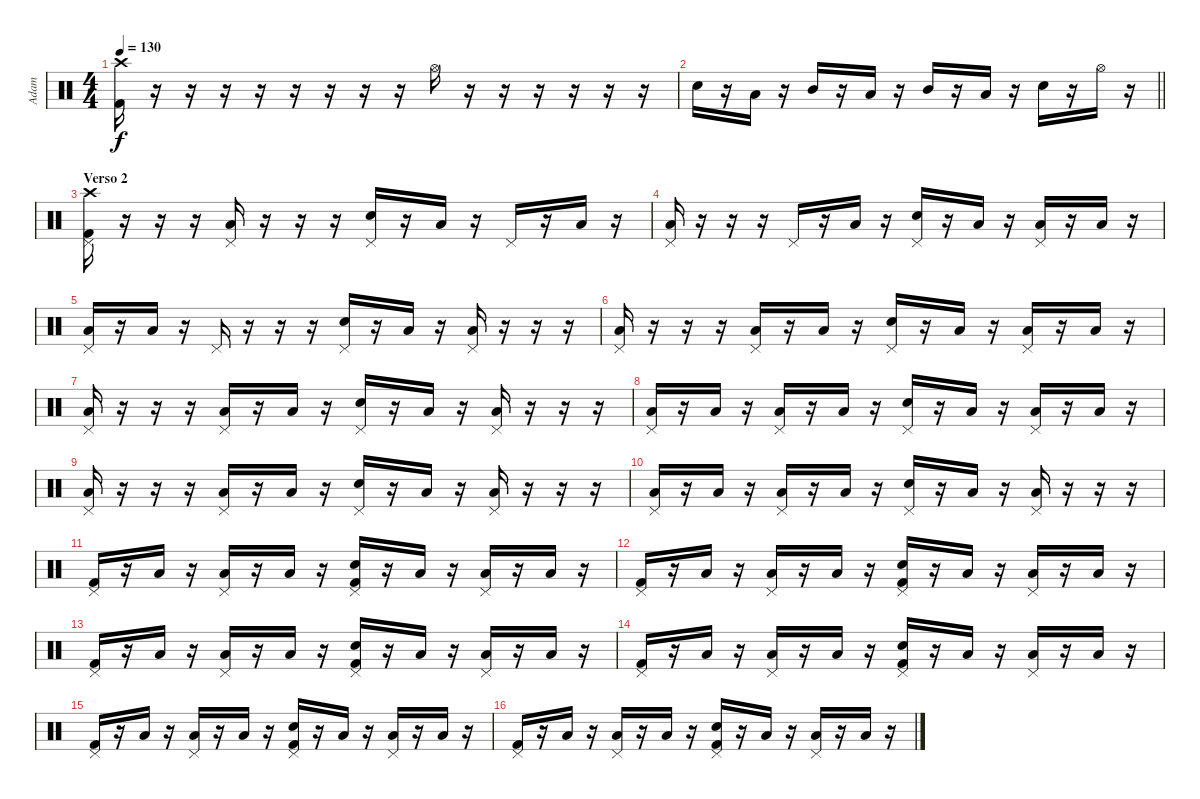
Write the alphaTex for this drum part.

\track ("Adam" "Adam") {instrument percussion}
\staff {score}
\articulation defaults
\ts (4 4)
\tempo 130
\clef neutral
\ks c
("Crash high (hit)" "Kick (hit) 2").16{dy f} r.16 r.16 r.16 r.16 r.16 r.16 r.16 r.16 "Hi-Hat (open)".16 r.16 r.16 r.16 r.16 r.16 r.16 |
\barLineRight lightlight "Snare (hit) 2".16
r.16 "Low Floor Tom (hit)".16 r.16 "Mid Tom (hit)".16 r.16 "Low Tom (hit)".16 r.16 "Mid Tom (hit)".16 r.16 "Low Floor Tom (hit)".16 r.16 "Snare (hit) 2".16 r.16 "Hi-Hat (open)".16 r.16 |
\section ("" "Verso 2")
("Crash high (hit)" "Pedal Hi-Hat (hit)" "Kick (hit) 2").16 r.16 r.16 r.16 ("Pedal Hi-Hat (hit)" "Low Floor Tom (hit)").16 r.16 r.16 r.16 ("Pedal Hi-Hat (hit)" "Snare (hit) 2").16 r.16 "Low Floor Tom (hit)".16 r.16 "Pedal Hi-Hat (hit)".16 r.16 "Low Floor Tom (hit)".16 r.16 |
("Pedal Hi-Hat (hit)" "Low Tom (hit)").16 r.16 r.16 r.16 "Pedal Hi-Hat (hit)".16 r.16 "Low Floor Tom (hit)".16 r.16 ("Pedal Hi-Hat (hit)" "Snare (hit) 2").16 r.16 "Low Tom (hit)".16 r.16 ("Pedal Hi-Hat (hit)" "Low Floor Tom (hit)").16 r.16 "Low Floor Tom (hit)".16 r.16 |
("Pedal Hi-Hat (hit)" "Low Floor Tom (hit)").16 r.16 "Low Floor Tom (hit)".16 r.16 "Pedal Hi-Hat (hit)".16 r.16 r.16 r.16 ("Pedal Hi-Hat (hit)" "Snare (hit) 2").16 r.16 "Low Tom (hit)".16 r.16 ("Pedal Hi-Hat (hit)" "Low Floor Tom (hit)").16 r.16 r.16 r.16 |
("Pedal Hi-Hat (hit)" "Low Floor Tom (hit)").16 r.16 r.16 r.16 ("Pedal Hi-Hat (hit)" "Low Tom (hit)").16 r.16 "Low Floor Tom (hit)".16 r.16 ("Pedal Hi-Hat (hit)" "Snare (hit) 2").16 r.16 "Low Floor Tom (hit)".16 r.16 ("Pedal Hi-Hat (hit)" "Low Floor Tom (hit)").16 r.16 "Low Floor Tom (hit)".16 r.16 |
("Pedal Hi-Hat (hit)" "Low Floor Tom (hit)").16 r.16 r.16 r.16 ("Pedal Hi-Hat (hit)" "Low Floor Tom (hit)").16 r.16 "Low Floor Tom (hit)".16 r.16 ("Pedal Hi-Hat (hit)" "Snare (hit) 2").16 r.16 "Low Tom (hit)".16 r.16 ("Pedal Hi-Hat (hit)" "Low Floor Tom (hit)").16 r.16 r.16 r.16 |
("Pedal Hi-Hat (hit)" "Low Floor Tom (hit)").16 r.16 "Low Tom (hit)".16 r.16 ("Pedal Hi-Hat (hit)" "Low Floor Tom (hit)").16 r.16 "Low Floor Tom (hit)".16 r.16 ("Pedal Hi-Hat (hit)" "Snare (hit) 2").16 r.16 "Low Tom (hit)".16 r.16 ("Pedal Hi-Hat (hit)" "Low Floor Tom (hit)").16 r.16 "Low Floor Tom (hit)".16 r.16 |
("Pedal Hi-Hat (hit)" "Low Floor Tom (hit)").16 r.16 r.16 r.16 ("Pedal Hi-Hat (hit)" "Low Floor Tom (hit)").16 r.16 "Low Floor Tom (hit)".16 r.16 ("Pedal Hi-Hat (hit)" "Snare (hit) 2").16 r.16 "Low Tom (hit)".16 r.16 ("Pedal Hi-Hat (hit)" "Low Floor Tom (hit)").16 r.16 r.16 r.16 |
("Pedal Hi-Hat (hit)" "Low Floor Tom (hit)").16 r.16 "Low Tom (hit)".16 r.16 ("Pedal Hi-Hat (hit)" "Low Floor Tom (hit)").16 r.16 "Low Floor Tom (hit)".16 r.16 ("Pedal Hi-Hat (hit)" "Snare (hit) 2").16 r.16 "Low Tom (hit)".16 r.16 ("Pedal Hi-Hat (hit)" "Low Floor Tom (hit)").16 r.16 r.16 r.16 |
("Pedal Hi-Hat (hit)" "Kick (hit) 2").16 r.16 "Low Tom (hit)".16 r.16 ("Pedal Hi-Hat (hit)" "Low Floor Tom (hit)").16 r.16 "Low Floor Tom (hit)".16 r.16 ("Pedal Hi-Hat (hit)" "Snare (hit) 2" "Kick (hit) 2").16 r.16 "Low Tom (hit)".16 r.16 ("Pedal Hi-Hat (hit)" "Low Floor Tom (hit)").16 r.16 "Low Floor Tom (hit)".16 r.16 |
("Pedal Hi-Hat (hit)" "Kick (hit) 2").16 r.16 "Low Tom (hit)".16 r.16 ("Pedal Hi-Hat (hit)" "Low Floor Tom (hit)").16 r.16 "Low Floor Tom (hit)".16 r.16 ("Pedal Hi-Hat (hit)" "Snare (hit) 2" "Kick (hit) 2").16 r.16 "Low Tom (hit)".16 r.16 ("Pedal Hi-Hat (hit)" "Low Floor Tom (hit)").16 r.16 "Low Floor Tom (hit)".16 r.16 |
("Pedal Hi-Hat (hit)" "Kick (hit) 2").16 r.16 "Low Tom (hit)".16 r.16 ("Pedal Hi-Hat (hit)" "Low Floor Tom (hit)").16 r.16 "Low Floor Tom (hit)".16 r.16 ("Pedal Hi-Hat (hit)" "Snare (hit) 2" "Kick (hit) 2").16 r.16 "Low Tom (hit)".16 r.16 ("Pedal Hi-Hat (hit)" "Low Floor Tom (hit)").16 r.16 "Low Floor Tom (hit)".16 r.16 |
("Pedal Hi-Hat (hit)" "Kick (hit) 2").16 r.16 "Low Tom (hit)".16 r.16 ("Pedal Hi-Hat (hit)" "Low Floor Tom (hit)").16 r.16 "Low Floor Tom (hit)".16 r.16 ("Pedal Hi-Hat (hit)" "Snare (hit) 2" "Kick (hit) 2").16 r.16 "Low Tom (hit)".16 r.16 ("Pedal Hi-Hat (hit)" "Low Floor Tom (hit)").16 r.16 "Low Floor Tom (hit)".16 r.16 |
("Pedal Hi-Hat (hit)" "Kick (hit) 2").16 r.16 "Low Tom (hit)".16 r.16 ("Pedal Hi-Hat (hit)" "Low Floor Tom (hit)").16 r.16 "Low Floor Tom (hit)".16 r.16 ("Pedal Hi-Hat (hit)" "Snare (hit) 2" "Kick (hit) 2").16 r.16 "Low Tom (hit)".16 r.16 ("Pedal Hi-Hat (hit)" "Low Floor Tom (hit)").16 r.16 "Low Floor Tom (hit)".16 r.16 |
("Pedal Hi-Hat (hit)" "Kick (hit) 2").16 r.16 "Low Tom (hit)".16 r.16 ("Pedal Hi-Hat (hit)" "Low Floor Tom (hit)").16 r.16 "Low Floor Tom (hit)".16 r.16 ("Pedal Hi-Hat (hit)" "Snare (hit) 2" "Kick (hit) 2").16 r.16 "Low Tom (hit)".16 r.16 ("Pedal Hi-Hat (hit)" "Low Floor Tom (hit)").16 r.16 "Low Floor Tom (hit)".16 r.16
